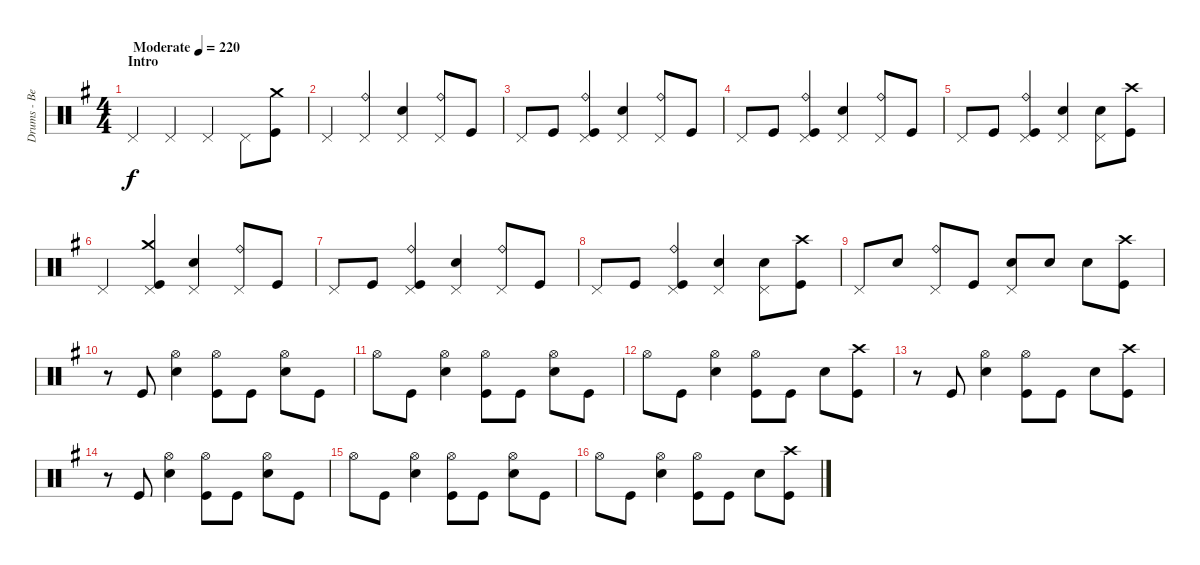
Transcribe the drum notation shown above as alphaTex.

\track ("Drums - Ben Johnston" "Drums - Be") {instrument percussion}
\staff {score}
\articulation defaults
\ts (4 4)
\section ("" "Intro")
\tempo (220 "Moderate")
\clef neutral
\ks eminor "Pedal Hi-Hat (hit)".4{dy f} "Pedal Hi-Hat (hit)".4 "Pedal Hi-Hat (hit)".4 "Pedal Hi-Hat (hit)".8
("Crash medium (hit)" "Kick (hit)").8 |
"Pedal Hi-Hat (hit)".4 ("Ride (bell)" "Pedal Hi-Hat (hit)").4 ("Pedal Hi-Hat (hit)" "Snare (hit) 2").4 ("Ride (bell)" "Pedal Hi-Hat (hit)").8 "Kick (hit)".8 |
"Pedal Hi-Hat (hit)".8 "Kick (hit)".8 ("Ride (bell)" "Pedal Hi-Hat (hit)" "Kick (hit)").4 ("Pedal Hi-Hat (hit)" "Snare (hit) 2").4 ("Ride (bell)" "Pedal Hi-Hat (hit)").8 "Kick (hit)".8 |
"Pedal Hi-Hat (hit)".8 "Kick (hit)".8 ("Ride (bell)" "Pedal Hi-Hat (hit)" "Kick (hit)").4 ("Pedal Hi-Hat (hit)" "Snare (hit) 2").4 ("Ride (bell)" "Pedal Hi-Hat (hit)").8 "Kick (hit)".8 |
"Pedal Hi-Hat (hit)".8 "Kick (hit)".8 ("Ride (bell)" "Pedal Hi-Hat (hit)" "Kick (hit)").4 ("Pedal Hi-Hat (hit)" "Snare (hit) 2").4 ("Pedal Hi-Hat (hit)" "Snare (hit) 2").8 ("Crash high (hit)" "Kick (hit)").8 |
"Pedal Hi-Hat (hit)".4 ("Crash medium (hit)" "Pedal Hi-Hat (hit)" "Kick (hit)").4 ("Pedal Hi-Hat (hit)" "Snare (hit) 2").4 ("Ride (bell)" "Pedal Hi-Hat (hit)").8 "Kick (hit)".8 |
"Pedal Hi-Hat (hit)".8 "Kick (hit)".8 ("Ride (bell)" "Pedal Hi-Hat (hit)" "Kick (hit)").4 ("Pedal Hi-Hat (hit)" "Snare (hit) 2").4 ("Ride (bell)" "Pedal Hi-Hat (hit)").8 "Kick (hit)".8 |
"Pedal Hi-Hat (hit)".8 "Kick (hit)".8 ("Ride (bell)" "Pedal Hi-Hat (hit)" "Kick (hit)").4 ("Pedal Hi-Hat (hit)" "Snare (hit) 2").4 ("Pedal Hi-Hat (hit)" "Snare (hit) 2").8 ("Crash high (hit)" "Kick (hit)").8 |
"Pedal Hi-Hat (hit)".8 "Snare (hit) 2".8 ("Ride (bell)" "Pedal Hi-Hat (hit)").8 "Kick (hit)".8 ("Pedal Hi-Hat (hit)" "Snare (hit) 2").8 "Snare (hit) 2".8 "Snare (hit) 2".8 ("Crash high (hit)" "Kick (hit)").8 |
r.8 "Kick (hit)".8 ("Hi-Hat (open)" "Snare (hit) 2").4 ("Hi-Hat (open)" "Kick (hit)").8 "Kick (hit)".8 ("Hi-Hat (open)" "Snare (hit) 2").8 "Kick (hit)".8 |
"Hi-Hat (open)".8 "Kick (hit)".8 ("Hi-Hat (open)" "Snare (hit) 2").4 ("Hi-Hat (open)" "Kick (hit)").8 "Kick (hit)".8 ("Hi-Hat (open)" "Snare (hit) 2").8 "Kick (hit)".8 |
"Hi-Hat (open)".8 "Kick (hit)".8 ("Hi-Hat (open)" "Snare (hit) 2").4 ("Hi-Hat (open)" "Kick (hit)").8 "Kick (hit)".8 "Snare (hit) 2".8 ("Crash high (hit)" "Kick (hit)").8 |
r.8 "Kick (hit)".8 ("Hi-Hat (open)" "Snare (hit) 2").4 ("Hi-Hat (open)" "Kick (hit)").8 "Kick (hit)".8 "Snare (hit) 2".8 ("Crash high (hit)" "Kick (hit)").8 |
r.8 "Kick (hit)".8 ("Hi-Hat (open)" "Snare (hit) 2").4 ("Hi-Hat (open)" "Kick (hit)").8 "Kick (hit)".8 ("Hi-Hat (open)" "Snare (hit) 2").8 "Kick (hit)".8 |
"Hi-Hat (open)".8 "Kick (hit)".8 ("Hi-Hat (open)" "Snare (hit) 2").4 ("Hi-Hat (open)" "Kick (hit)").8 "Kick (hit)".8 ("Hi-Hat (open)" "Snare (hit) 2").8 "Kick (hit)".8 |
"Hi-Hat (open)".8 "Kick (hit)".8 ("Hi-Hat (open)" "Snare (hit) 2").4 ("Hi-Hat (open)" "Kick (hit)").8 "Kick (hit)".8 "Snare (hit) 2".8 ("Crash high (hit)" "Kick (hit)").8
